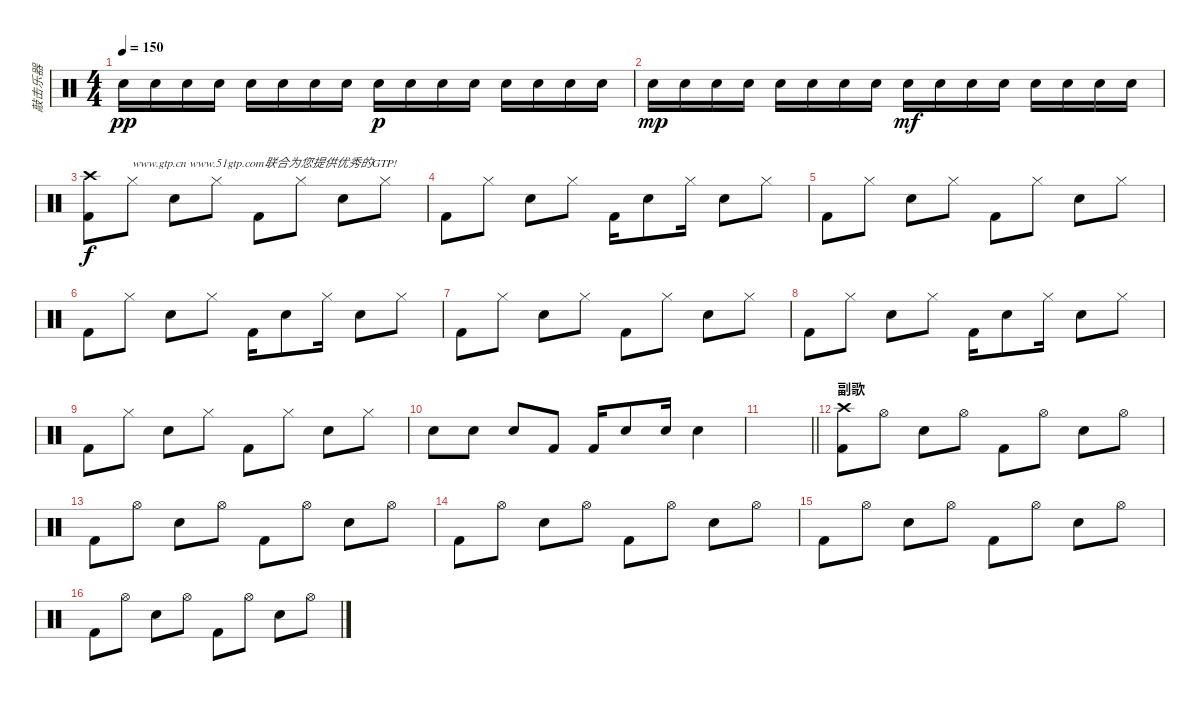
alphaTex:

\track ("敲击乐器" "敲击乐器") {instrument percussion}
\staff {score}
\articulation defaults
\ts (4 4)
\tempo 150
\clef neutral
\ks c "Snare (hit) 2".16{dy pp} "Snare (hit) 2".16 "Snare (hit) 2".16 "Snare (hit) 2".16 "Snare (hit) 2".16 "Snare (hit) 2".16 "Snare (hit) 2".16 "Snare (hit) 2".16 "Snare (hit) 2".16{dy p} "Snare (hit) 2".16 "Snare (hit) 2".16 "Snare (hit) 2".16 "Snare (hit) 2".16 "Snare (hit) 2".16 "Snare (hit) 2".16 "Snare (hit) 2".16
|
"Snare (hit) 2".16{dy mp} "Snare (hit) 2".16 "Snare (hit) 2".16 "Snare (hit) 2".16 "Snare (hit) 2".16 "Snare (hit) 2".16 "Snare (hit) 2".16 "Snare (hit) 2".16 "Snare (hit) 2".16{dy mf} "Snare (hit) 2".16 "Snare (hit) 2".16 "Snare (hit) 2".16 "Snare (hit) 2".16 "Snare (hit) 2".16 "Snare (hit) 2".16 "Snare (hit) 2".16 |
("Crash high (hit)" "Kick (hit) 2").8{dy f} "Hi-Hat (closed)".8{txt "www.gtp.cn www.51gtp.com联合为您提供优秀的GTP!"} "Snare (hit) 2".8 "Hi-Hat (closed)".8 "Kick (hit) 2".8 "Hi-Hat (closed)".8 "Snare (hit) 2".8 "Hi-Hat (closed)".8 |
"Kick (hit) 2".8 "Hi-Hat (closed)".8 "Snare (hit) 2".8 "Hi-Hat (closed)".8 "Kick (hit) 2".16 "Snare (hit) 2".8 "Hi-Hat (closed)".16 "Snare (hit) 2".8 "Hi-Hat (closed)".8 |
"Kick (hit) 2".8 "Hi-Hat (closed)".8 "Snare (hit) 2".8 "Hi-Hat (closed)".8 "Kick (hit) 2".8 "Hi-Hat (closed)".8 "Snare (hit) 2".8 "Hi-Hat (closed)".8 |
"Kick (hit) 2".8 "Hi-Hat (closed)".8 "Snare (hit) 2".8 "Hi-Hat (closed)".8 "Kick (hit) 2".16 "Snare (hit) 2".8 "Hi-Hat (closed)".16 "Snare (hit) 2".8 "Hi-Hat (closed)".8 |
"Kick (hit) 2".8 "Hi-Hat (closed)".8 "Snare (hit) 2".8 "Hi-Hat (closed)".8 "Kick (hit) 2".8 "Hi-Hat (closed)".8 "Snare (hit) 2".8 "Hi-Hat (closed)".8 |
"Kick (hit) 2".8 "Hi-Hat (closed)".8 "Snare (hit) 2".8 "Hi-Hat (closed)".8 "Kick (hit) 2".16 "Snare (hit) 2".8 "Hi-Hat (closed)".16 "Snare (hit) 2".8 "Hi-Hat (closed)".8 |
"Kick (hit) 2".8 "Hi-Hat (closed)".8 "Snare (hit) 2".8 "Hi-Hat (closed)".8 "Kick (hit) 2".8 "Hi-Hat (closed)".8 "Snare (hit) 2".8 "Hi-Hat (closed)".8 |
"Snare (hit) 2".8 "Snare (hit) 2".8 "Snare (hit) 2".8 "Kick (hit) 2".8 "Kick (hit) 2".16 "Snare (hit) 2".8 "Snare (hit) 2".16 "Snare (hit) 2".4 |
\barLineRight lightlight
|
\section ("" "副歌")
("Crash high (hit)" "Kick (hit) 2").8 "Hi-Hat (open)".8 "Snare (hit) 2".8 "Hi-Hat (open)".8 "Kick (hit) 2".8 "Hi-Hat (open)".8 "Snare (hit) 2".8 "Hi-Hat (open)".8 |
"Kick (hit) 2".8 "Hi-Hat (open)".8 "Snare (hit) 2".8 "Hi-Hat (open)".8 "Kick (hit) 2".8 "Hi-Hat (open)".8 "Snare (hit) 2".8 "Hi-Hat (open)".8 |
"Kick (hit) 2".8 "Hi-Hat (open)".8 "Snare (hit) 2".8 "Hi-Hat (open)".8 "Kick (hit) 2".8 "Hi-Hat (open)".8 "Snare (hit) 2".8 "Hi-Hat (open)".8 |
"Kick (hit) 2".8 "Hi-Hat (open)".8 "Snare (hit) 2".8 "Hi-Hat (open)".8 "Kick (hit) 2".8 "Hi-Hat (open)".8 "Snare (hit) 2".8 "Hi-Hat (open)".8 |
"Kick (hit) 2".8 "Hi-Hat (open)".8 "Snare (hit) 2".8 "Hi-Hat (open)".8 "Kick (hit) 2".8 "Hi-Hat (open)".8 "Snare (hit) 2".8 "Hi-Hat (open)".8
